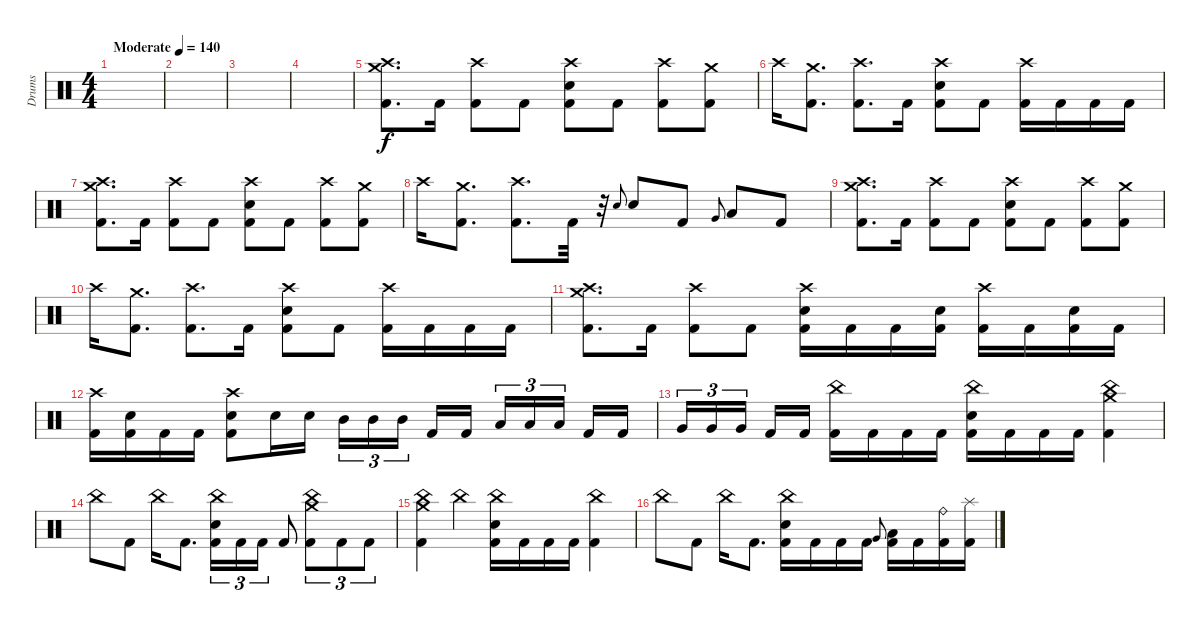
\track ("Drums" "Drums") {instrument percussion}
\staff {score}
\articulation defaults
\ts (4 4)
\tempo (140 "Moderate")
\clef neutral
\ks c
|
|
|
|
("Crash medium (hit)" "Crash high (hit)" "Kick (hit) 2").8{d} "Kick (hit) 2".16 ("Crash high (hit)" "Kick (hit) 2").8 "Kick (hit) 2".8 ("Crash high (hit)" "Electric Snare (hit)" "Kick (hit) 2").8 "Kick (hit) 2".8 ("Crash high (hit)" "Kick (hit) 2").8 ("Crash medium (hit)" "Kick (hit) 2").8 |
"Crash high (hit)".16 ("Crash medium (hit)" "Kick (hit) 2").8{d} ("Crash high (hit)" "Kick (hit) 2").8{d} "Kick (hit) 2".16 ("Crash high (hit)" "Electric Snare (hit)" "Kick (hit) 2").8 "Kick (hit) 2".8 ("Crash high (hit)" "Kick (hit) 2").16 "Kick (hit) 2".16 "Kick (hit) 2".16 "Kick (hit) 2".16 |
("Crash high (hit)" "Crash medium (hit)" "Kick (hit) 2").8{d} "Kick (hit) 2".16 ("Crash high (hit)" "Kick (hit) 2").8 "Kick (hit) 2".8 ("Crash high (hit)" "Electric Snare (hit)" "Kick (hit) 2").8 "Kick (hit) 2".8 ("Crash high (hit)" "Kick (hit) 2").8 ("Crash medium (hit)" "Kick (hit) 2").8 |
"Crash high (hit)".16 ("Crash medium (hit)" "Kick (hit) 2").8{d} ("Crash high (hit)" "Kick (hit) 2").8{d} "Kick (hit) 2".32 r.32 "Electric Snare (hit)".8{gr onbeat} "Electric Snare (hit)".8 "Kick (hit) 2".8 "Very Low Tom (hit)".8{gr onbeat} "Low Tom (hit)".8 "Kick (hit) 2".8 |
("Crash medium (hit)" "Crash high (hit)" "Kick (hit) 2").8{d} "Kick (hit) 2".16 ("Crash high (hit)" "Kick (hit) 2").8 "Kick (hit) 2".8 ("Crash high (hit)" "Electric Snare (hit)" "Kick (hit) 2").8 "Kick (hit) 2".8 ("Crash high (hit)" "Kick (hit) 2").8 ("Crash medium (hit)" "Kick (hit) 2").8 |
"Crash high (hit)".16 ("Crash medium (hit)" "Kick (hit) 2").8{d} ("Crash high (hit)" "Kick (hit) 2").8{d} "Kick (hit) 2".16 ("Crash high (hit)" "Electric Snare (hit)" "Kick (hit) 2").8 "Kick (hit) 2".8 ("Crash high (hit)" "Kick (hit) 2").16 "Kick (hit) 2".16 "Kick (hit) 2".16 "Kick (hit) 2".16 |
("Crash high (hit)" "Crash medium (hit)" "Kick (hit) 2").8{d} "Kick (hit) 2".16 ("Crash high (hit)" "Kick (hit) 2").8 "Kick (hit) 2".8 ("Crash high (hit)" "Electric Snare (hit)" "Kick (hit) 2").16 "Kick (hit) 2".16 "Kick (hit) 2".16 ("Electric Snare (hit)" "Kick (hit) 2").16 ("Crash high (hit)" "Kick (hit) 2").16 "Kick (hit) 2".16 ("Electric Snare (hit)" "Kick (hit) 2").16 "Kick (hit) 2".16 |
("Crash high (hit)" "Kick (hit) 2").16 ("Electric Snare (hit)" "Kick (hit) 2").16 "Kick (hit) 2".16 "Kick (hit) 2".16 ("Crash high (hit)" "Electric Snare (hit)" "Kick (hit) 2").8 "Electric Snare (hit)".16 "Electric Snare (hit)".16 "Mid Tom (hit)".16{tu (3 2)} "Mid Tom (hit)".16{tu (3 2)} "Mid Tom (hit)".16{tu (3 2) beam splitsecondary} "Kick (hit) 2".16 "Kick (hit) 2".16 "Low Tom (hit)".16{tu (3 2)} "Low Tom (hit)".16{tu (3 2)} "Low Tom (hit)".16{tu (3 2) beam splitsecondary} "Kick (hit) 2".16 "Kick (hit) 2".16 |
"Very Low Tom (hit)".16{tu (3 2)} "Very Low Tom (hit)".16{tu (3 2)} "Very Low Tom (hit)".16{tu (3 2) beam splitsecondary} "Kick (hit) 2".16 "Kick (hit) 2".16 ("China (hit)" "Kick (hit) 2").16 "Kick (hit) 2".16 "Kick (hit) 2".16 "Kick (hit) 2".16 ("China (hit)" "Electric Snare (hit)" "Kick (hit) 2").16 "Kick (hit) 2".16 "Kick (hit) 2".16 "Kick (hit) 2".16 ("China (hit)" "Crash medium (hit)" "Kick (hit) 2").4 |
"China (hit)".8 "Kick (hit) 2".8 "China (hit)".16 "Kick (hit) 2".8{d} ("China (hit)" "Electric Snare (hit)" "Kick (hit) 2").16{tu (3 2)} "Kick (hit) 2".16{tu (3 2)} "Kick (hit) 2".16{tu (3 2)} "Kick (hit) 2".8 ("China (hit)" "Crash medium (hit)" "Kick (hit) 2").8{tu (3 2)} "Kick (hit) 2".8{tu (3 2)} "Kick (hit) 2".8{tu (3 2)} |
("China (hit)" "Crash medium (hit)" "Kick (hit) 2").4 "China (hit)".4 ("China (hit)" "Electric Snare (hit)" "Kick (hit) 2").16 "Kick (hit) 2".16 "Kick (hit) 2".16 "Kick (hit) 2".16 ("China (hit)" "Kick (hit) 2").4 |
"China (hit)".8 "Kick (hit) 2".8 "China (hit)".16 "Kick (hit) 2".8{d} ("China (hit)" "Electric Snare (hit)" "Kick (hit) 2").16 "Kick (hit) 2".16 "Kick (hit) 2".16 "Kick (hit) 2".16 "Very Low Tom (hit)".8{gr onbeat} ("Low Tom (hit)" "Kick (hit) 2").16 "Kick (hit) 2".16 ("Ride (bell)" "Kick (hit) 2").16 ("Splash (hit)" "Kick (hit) 2").16
